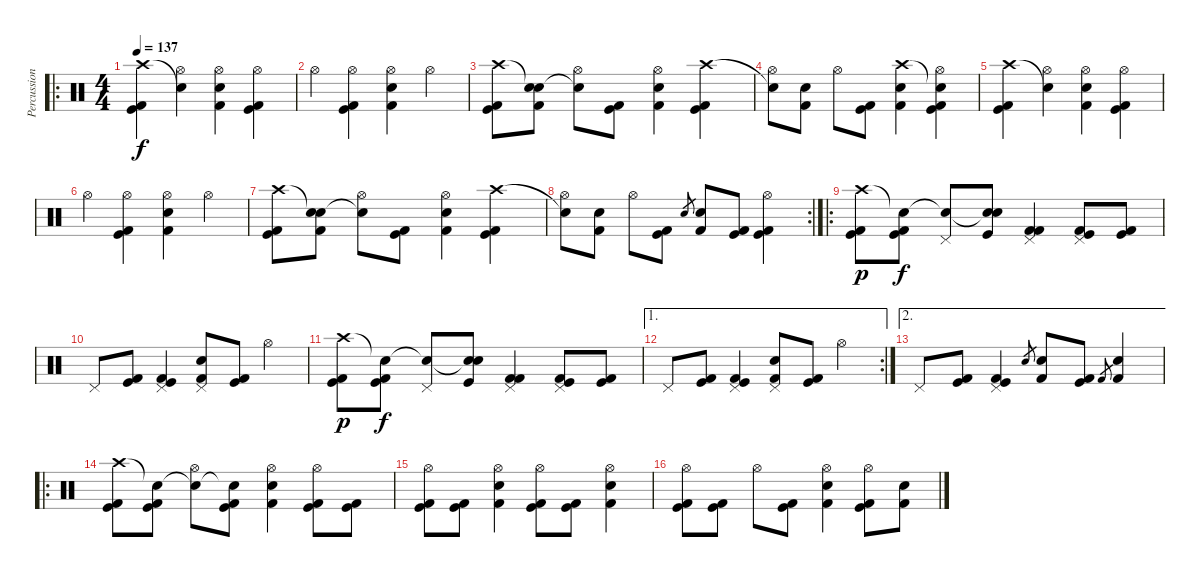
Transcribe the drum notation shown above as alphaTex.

\track ("Percussion" "Percussion") {instrument percussion}
\staff {score}
\articulation defaults
\ro
\ts (4 4)
\tempo 137
\clef neutral
\ks c
("Crash high (hit)" "Kick (hit) 2" "Kick (hit)").4{dy f} ("Snare (hit)"{t} "Hi-Hat (open)").4 ("Hi-Hat (open)" "Snare (hit) 2" "Kick (hit) 2").4 ("Hi-Hat (open)" "Kick (hit) 2" "Kick (hit)").4 |
"Hi-Hat (open)".4 ("Hi-Hat (open)" "Kick (hit) 2" "Kick (hit)").4 ("Hi-Hat (open)" "Snare (hit) 2" "Kick (hit) 2").4 "Hi-Hat (open)".4 |
("Crash high (hit)" "Kick (hit) 2" "Kick (hit)").8 ("Snare (hit)"{t} "Snare (hit) 2" "Kick (hit) 2").8 ("Snare (hit)"{t} "Hi-Hat (open)").8 ("Kick (hit) 2" "Kick (hit)").8 ("Hi-Hat (open)" "Snare (hit) 2" "Kick (hit) 2").4 ("Crash high (hit)" "Kick (hit) 2" "Kick (hit)").4 |
("Snare (hit)"{t} "Hi-Hat (open)").8 ("Snare (hit) 2" "Kick (hit) 2").8 "Hi-Hat (open)".8 ("Kick (hit) 2" "Kick (hit)").8 ("Crash high (hit)" "Snare (hit) 2" "Kick (hit) 2").4 ("Snare (hit)"{t} "Hi-Hat (open)" "Kick (hit) 2" "Kick (hit)").4 |
("Crash high (hit)" "Kick (hit) 2" "Kick (hit)").4 ("Snare (hit)"{t} "Hi-Hat (open)").4 ("Hi-Hat (open)" "Snare (hit) 2" "Kick (hit) 2").4 ("Hi-Hat (open)" "Kick (hit) 2" "Kick (hit)").4 |
"Hi-Hat (open)".4 ("Hi-Hat (open)" "Kick (hit) 2" "Kick (hit)").4 ("Hi-Hat (open)" "Snare (hit) 2" "Kick (hit) 2").4 "Hi-Hat (open)".4 |
("Crash high (hit)" "Kick (hit) 2" "Kick (hit)").8 ("Snare (hit)"{t} "Snare (hit) 2" "Kick (hit) 2").8 ("Snare (hit)"{t} "Hi-Hat (open)").8 ("Kick (hit) 2" "Kick (hit)").8 ("Hi-Hat (open)" "Snare (hit) 2" "Kick (hit) 2").4 ("Crash high (hit)" "Kick (hit) 2" "Kick (hit)").4 |
\rc 2
("Snare (hit)"{t} "Hi-Hat (open)").8 ("Snare (hit) 2" "Kick (hit) 2").8 "Hi-Hat (open)".8 ("Kick (hit) 2" "Kick (hit)").8 "Snare (hit) 2".8{gr} ("Snare (hit) 2" "Kick (hit) 2").8 ("Kick (hit) 2" "Kick (hit)").8 ("Hi-Hat (open)" "Kick (hit) 2" "Kick (hit)").4 |
\ro
("Crash high (hit)" "Kick (hit) 2" "Kick (hit)").8{dy p} ("Snare (hit)"{t} "Kick (hit) 2" "Kick (hit)").8{dy f} ("Snare (hit)"{t} "Pedal Hi-Hat (hit)").8 ("Snare (hit)"{t} "Snare (hit) 2" "Kick (hit)").8 ("Pedal Hi-Hat (hit)" "Kick (hit) 2" "Kick (hit) 2").4 ("Pedal Hi-Hat (hit)" "Kick (hit) 2" "Kick (hit)").8 ("Kick (hit) 2" "Kick (hit)").8 |
"Pedal Hi-Hat (hit)".8 ("Kick (hit)" "Kick (hit) 2").8 ("Pedal Hi-Hat (hit)" "Kick (hit)" "Kick (hit) 2").4 ("Pedal Hi-Hat (hit)" "Snare (hit) 2" "Kick (hit) 2").8 ("Kick (hit) 2" "Kick (hit)").8 "Hi-Hat (open)".4 |
("Crash high (hit)" "Kick (hit) 2" "Kick (hit)").8{dy p} ("Snare (hit)"{t} "Kick (hit) 2" "Kick (hit)").8{dy f} ("Snare (hit)"{t} "Pedal Hi-Hat (hit)").8 ("Snare (hit)"{t} "Snare (hit) 2" "Kick (hit)").8 ("Pedal Hi-Hat (hit)" "Kick (hit) 2" "Kick (hit) 2").4 ("Pedal Hi-Hat (hit)" "Kick (hit) 2" "Kick (hit)").8 ("Kick (hit) 2" "Kick (hit)").8 |
\ae 1
\rc 2 "Pedal Hi-Hat (hit)".8
("Kick (hit)" "Kick (hit) 2").8 ("Pedal Hi-Hat (hit)" "Kick (hit)" "Kick (hit) 2").4 ("Pedal Hi-Hat (hit)" "Snare (hit) 2" "Kick (hit) 2").8 ("Kick (hit) 2" "Kick (hit)").8 "Hi-Hat (open)".4 |
\ae 2 "Pedal Hi-Hat (hit)".8
("Kick (hit)" "Kick (hit) 2").8 ("Pedal Hi-Hat (hit)" "Kick (hit)" "Kick (hit) 2").4 "Snare (hit) 2".8{gr} ("Snare (hit) 2" "Kick (hit) 2").8 ("Kick (hit) 2" "Kick (hit)").8 "Kick (hit) 2".8{gr} ("Snare (hit) 2" "Kick (hit) 2").4 |
\ro
("Crash high (hit)" "Kick (hit) 2" "Kick (hit)").8 ("Snare (hit)"{t} "Kick (hit) 2" "Kick (hit)").8 ("Snare (hit)"{t} "Hi-Hat (open)").8 ("Snare (hit)"{t} "Kick (hit) 2" "Kick (hit)").8 ("Hi-Hat (open)" "Snare (hit) 2" "Kick (hit) 2").4 ("Hi-Hat (open)" "Kick (hit) 2" "Kick (hit)").8 ("Kick (hit) 2" "Kick (hit)").8 |
("Hi-Hat (open)" "Kick (hit) 2" "Kick (hit)").8 ("Kick (hit) 2" "Kick (hit)").8 ("Hi-Hat (open)" "Snare (hit) 2" "Kick (hit) 2").4 ("Hi-Hat (open)" "Kick (hit) 2" "Kick (hit)").8 ("Kick (hit) 2" "Kick (hit)").8 ("Hi-Hat (open)" "Snare (hit) 2" "Kick (hit) 2").4 |
("Hi-Hat (open)" "Kick (hit) 2" "Kick (hit)").8 ("Kick (hit) 2" "Kick (hit)").8 "Hi-Hat (open)".8 ("Kick (hit) 2" "Kick (hit)").8 ("Hi-Hat (open)" "Snare (hit) 2" "Kick (hit) 2").4 ("Hi-Hat (open)" "Kick (hit) 2" "Kick (hit)").8 ("Snare (hit) 2" "Kick (hit) 2").8
